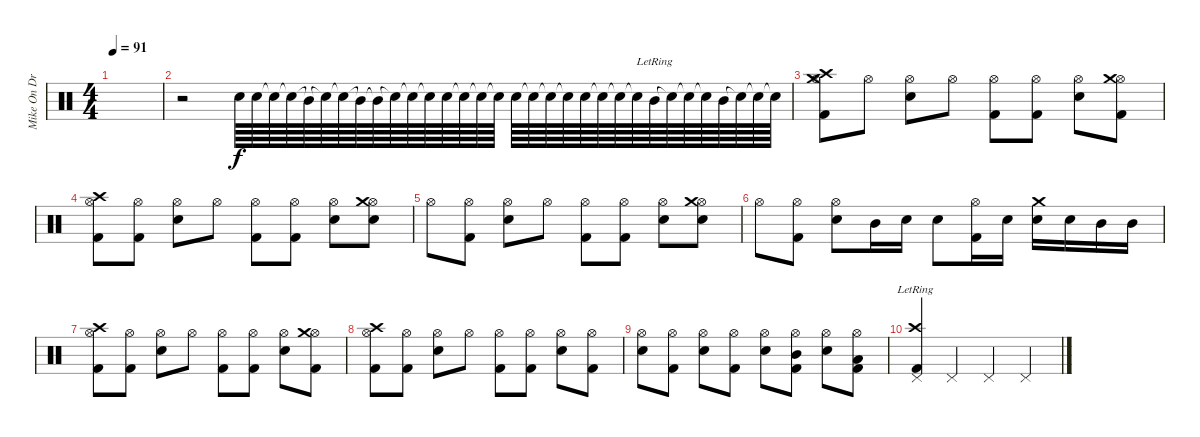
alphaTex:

\track ("Mike On Drumms again" "Mike On Dr") {instrument percussion}
\staff {score}
\articulation defaults
\ts (4 4)
\tempo 91
\clef neutral
\ks c
|
r.2 "Snare (hit) 2".64 "Snare (hit) 2".64 "Snare (hit) 2"{t}.64 "Snare (hit) 2"{t}.64 "Mid Tom (hit)"{t}.64 "Snare (hit) 2"{t}.64 "Snare (hit)"{t}.64 "Mid Tom (hit)"{t}.64 "Mid Tom (hit)"{t}.64 "Snare (hit)"{t}.64 "Snare (hit)"{t}.64 "Snare (hit) 2"{t}.64 "Snare (hit) 2".64 "Snare (hit) 2"{t}.64 "Snare (hit)"{t}.64 "Snare (hit)"{t}.64 "Snare (hit) 2".64 "Snare (hit)"{t}.64 "Snare (hit)"{t}.64 "Snare (hit)"{t}.64 "Snare (hit) 2".64 "Snare (hit)"{t}.64 "Snare (hit)"{t}.64 "Snare (hit)"{t}.64 "Mid Tom (hit)"{lr}.64 "Snare (hit)"{t}.64 "Snare (hit)"{t}.64 "Snare (hit)"{t}.64 "Mid Tom (hit)".64 "Snare (hit)"{t}.64 "Snare (hit)"{t}.64 "Snare (hit)"{t}.64 |
("Crash medium (hit)" "Hi-Hat (open)" "Kick (hit) 2" "Crash high (hit)").8 "Hi-Hat (open)".8 ("Hi-Hat (open)" "Snare (hit) 2").8 "Hi-Hat (open)".8 ("Hi-Hat (open)" "Kick (hit) 2").8 ("Hi-Hat (open)" "Kick (hit) 2").8 ("Hi-Hat (open)" "Snare (hit) 2").8 ("Hi-Hat (open)" "Kick (hit) 2" "Crash medium (hit)").8 |
("Hi-Hat (open)" "Kick (hit) 2" "Crash high (hit)").8 ("Hi-Hat (open)" "Kick (hit) 2").8 ("Hi-Hat (open)" "Snare (hit) 2").8 "Hi-Hat (open)".8 ("Hi-Hat (open)" "Kick (hit) 2").8 ("Hi-Hat (open)" "Kick (hit) 2").8 ("Hi-Hat (open)" "Snare (hit) 2").8 ("Hi-Hat (open)" "Snare (hit) 2" "Crash medium (hit)").8 |
"Hi-Hat (open)".8 ("Hi-Hat (open)" "Kick (hit) 2").8 ("Hi-Hat (open)" "Snare (hit) 2").8 "Hi-Hat (open)".8 ("Hi-Hat (open)" "Kick (hit) 2").8 ("Hi-Hat (open)" "Kick (hit) 2").8 ("Hi-Hat (open)" "Snare (hit) 2").8 ("Hi-Hat (open)" "Snare (hit) 2" "Crash medium (hit)").8 |
"Hi-Hat (open)".8 ("Hi-Hat (open)" "Kick (hit) 2").8 ("Hi-Hat (open)" "Snare (hit) 2").8 "Mid Tom (hit)".16 "Snare (hit) 2".16 "Snare (hit) 2".8 ("Kick (hit) 2" "Hi-Hat (open)").16 "Snare (hit) 2".16 ("Snare (hit) 2" "Crash medium (hit)").16 "Snare (hit) 2".16 "Mid Tom (hit)".16 "Mid Tom (hit)".16 |
("Hi-Hat (open)" "Kick (hit) 2" "Crash high (hit)").8 ("Hi-Hat (open)" "Kick (hit) 2").8 ("Hi-Hat (open)" "Snare (hit) 2").8 "Hi-Hat (open)".8 ("Hi-Hat (open)" "Kick (hit) 2").8 ("Hi-Hat (open)" "Kick (hit) 2").8 ("Hi-Hat (open)" "Snare (hit) 2").8 ("Hi-Hat (open)" "Kick (hit) 2" "Crash medium (hit)").8 |
("Hi-Hat (open)" "Kick (hit) 2" "Crash high (hit)").8 ("Hi-Hat (open)" "Kick (hit) 2").8 ("Hi-Hat (open)" "Snare (hit) 2").8 "Hi-Hat (open)".8 ("Hi-Hat (open)" "Kick (hit) 2").8 ("Hi-Hat (open)" "Kick (hit) 2").8 ("Hi-Hat (open)" "Snare (hit) 2").8 ("Hi-Hat (open)" "Kick (hit) 2").8 |
("Hi-Hat (open)" "Snare (hit) 2").8 ("Hi-Hat (open)" "Kick (hit) 2").8 ("Hi-Hat (open)" "Snare (hit) 2").8 ("Hi-Hat (open)" "Kick (hit) 2").8 ("Hi-Hat (open)" "Snare (hit) 2").8 ("Mid Tom (hit)" "Hi-Hat (open)" "Kick (hit) 2").8 ("Hi-Hat (open)" "Snare (hit) 2").8 ("Low Tom (hit)" "Hi-Hat (open)" "Kick (hit) 2").8 |
("Crash high (hit)"{lr} "Pedal Hi-Hat (hit)" "Kick (hit) 2").4 "Pedal Hi-Hat (hit)".4 "Pedal Hi-Hat (hit)".4 "Pedal Hi-Hat (hit)".4
